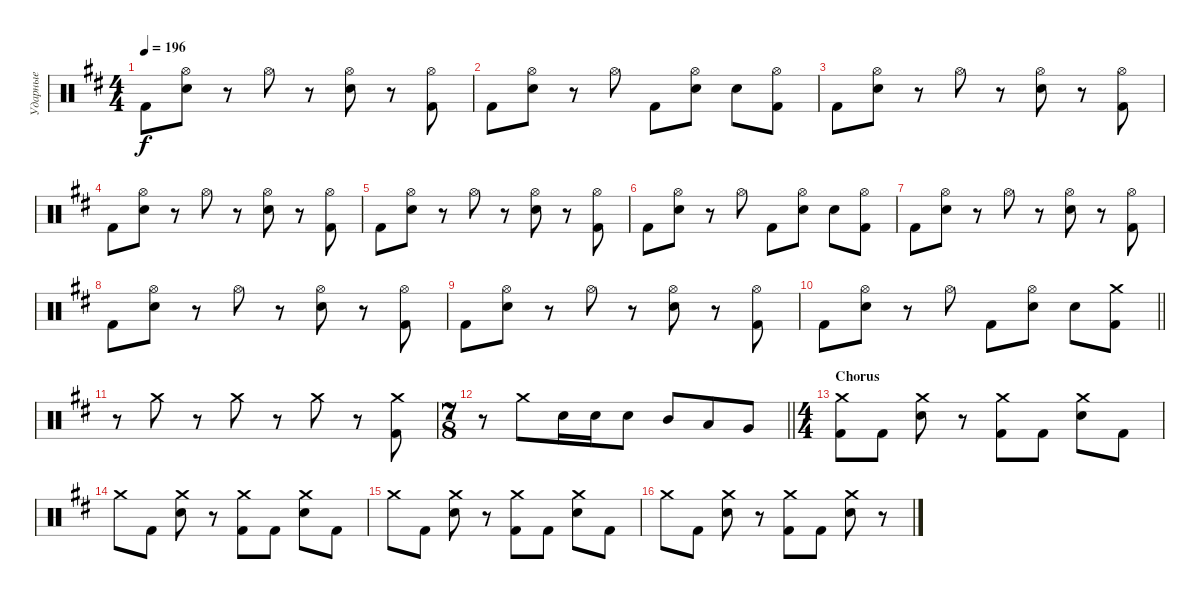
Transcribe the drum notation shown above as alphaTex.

\track ("Ударные" "Ударные") {instrument percussion}
\staff {score}
\articulation defaults
\ts (4 4)
\tempo 196
\clef neutral
\ks d "Kick (hit) 2".8{dy f}
("Hi-Hat (open)" "Electric Snare (hit)").8 r.8 "Hi-Hat (open)".8 r.8 ("Hi-Hat (open)" "Electric Snare (hit)").8 r.8 ("Hi-Hat (open)" "Kick (hit) 2").8 |
"Kick (hit) 2".8 ("Hi-Hat (open)" "Electric Snare (hit)").8 r.8 "Hi-Hat (open)".8 "Kick (hit) 2".8 ("Hi-Hat (open)" "Electric Snare (hit)").8 "Electric Snare (hit)".8 ("Hi-Hat (open)" "Kick (hit) 2").8 |
"Kick (hit) 2".8 ("Hi-Hat (open)" "Electric Snare (hit)").8 r.8 "Hi-Hat (open)".8 r.8 ("Hi-Hat (open)" "Electric Snare (hit)").8 r.8 ("Hi-Hat (open)" "Kick (hit) 2").8 |
"Kick (hit) 2".8 ("Hi-Hat (open)" "Electric Snare (hit)").8 r.8 "Hi-Hat (open)".8 r.8 ("Hi-Hat (open)" "Electric Snare (hit)").8 r.8 ("Hi-Hat (open)" "Kick (hit) 2").8 |
"Kick (hit) 2".8 ("Hi-Hat (open)" "Electric Snare (hit)").8 r.8 "Hi-Hat (open)".8 r.8 ("Hi-Hat (open)" "Electric Snare (hit)").8 r.8 ("Hi-Hat (open)" "Kick (hit) 2").8 |
"Kick (hit) 2".8 ("Hi-Hat (open)" "Electric Snare (hit)").8 r.8 "Hi-Hat (open)".8 "Kick (hit) 2".8 ("Hi-Hat (open)" "Electric Snare (hit)").8 "Electric Snare (hit)".8 ("Hi-Hat (open)" "Kick (hit) 2").8 |
"Kick (hit) 2".8 ("Hi-Hat (open)" "Electric Snare (hit)").8 r.8 "Hi-Hat (open)".8 r.8 ("Hi-Hat (open)" "Electric Snare (hit)").8 r.8 ("Hi-Hat (open)" "Kick (hit) 2").8 |
"Kick (hit) 2".8 ("Hi-Hat (open)" "Electric Snare (hit)").8 r.8 "Hi-Hat (open)".8 r.8 ("Hi-Hat (open)" "Electric Snare (hit)").8 r.8 ("Hi-Hat (open)" "Kick (hit) 2").8 |
"Kick (hit) 2".8 ("Hi-Hat (open)" "Electric Snare (hit)").8 r.8 "Hi-Hat (open)".8 r.8 ("Hi-Hat (open)" "Electric Snare (hit)").8 r.8 ("Hi-Hat (open)" "Kick (hit) 2").8 |
\barLineRight lightlight "Kick (hit) 2".8
("Hi-Hat (open)" "Electric Snare (hit)").8 r.8 "Hi-Hat (open)".8 "Kick (hit) 2".8 ("Hi-Hat (open)" "Electric Snare (hit)").8 "Electric Snare (hit)".8 ("Crash medium (hit)" "Kick (hit) 2").8 |
r.8 "Crash medium (hit)".8 r.8 "Crash medium (hit)".8 r.8 "Crash medium (hit)".8 r.8 ("Crash medium (hit)" "Kick (hit) 2").8 |
\ts (7 8)
\barLineRight lightlight
r.8 "Crash medium (hit)".8 "Electric Snare (hit)".16 "Electric Snare (hit)".16 "Electric Snare (hit)".8 "Mid Tom (hit)".8 "Low Tom (hit)".8 "Very Low Tom (hit)".8 |
\ts (4 4)
\section ("" "Сhorus")
("Crash medium (hit)" "Kick (hit) 2").8 "Kick (hit) 2".8 ("Crash medium (hit)" "Electric Snare (hit)").8 r.8 ("Crash medium (hit)" "Kick (hit) 2").8 "Kick (hit) 2".8 ("Crash medium (hit)" "Electric Snare (hit)").8 "Kick (hit) 2".8 |
"Crash medium (hit)".8 "Kick (hit) 2".8 ("Crash medium (hit)" "Electric Snare (hit)").8 r.8 ("Crash medium (hit)" "Kick (hit) 2").8 "Kick (hit) 2".8 ("Crash medium (hit)" "Electric Snare (hit)").8 "Kick (hit) 2".8 |
"Crash medium (hit)".8 "Kick (hit) 2".8 ("Crash medium (hit)" "Electric Snare (hit)").8 r.8 ("Crash medium (hit)" "Kick (hit) 2").8 "Kick (hit) 2".8 ("Crash medium (hit)" "Electric Snare (hit)").8 "Kick (hit) 2".8 |
"Crash medium (hit)".8 "Kick (hit) 2".8 ("Crash medium (hit)" "Electric Snare (hit)").8 r.8 ("Crash medium (hit)" "Kick (hit) 2").8 "Kick (hit) 2".8 ("Crash medium (hit)" "Electric Snare (hit)").8 r.8
